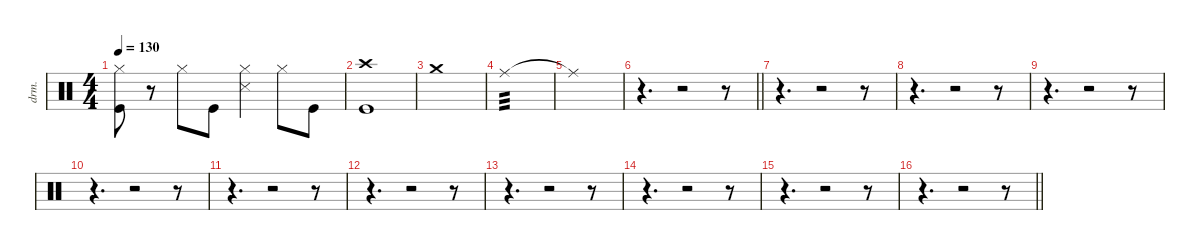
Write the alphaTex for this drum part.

\defaultSystemsLayout 4
\hideDynamics
\bracketExtendMode nobrackets
\track ("Manouche" "drm.") {instrument percussion}
\staff {score}
\articulation defaults
\ts (4 4)
\tempo 130
\clef neutral
\ks c
("Hi-Hat (closed)" "Kick (hit)").8{dy f beam Down} r.8{beam Down} "Hi-Hat (closed)".8{beam Down} "Kick (hit)".8{beam Down} ("Hi-Hat (closed)" "Snare (side stick) 3").4{beam Down} "Hi-Hat (closed)".8{beam Down} "Kick (hit)".8{beam Down} |
("Crash high (hit)" "Kick (hit)").1{beam Down} |
"Crash medium (hit)".1{dy mf beam Down} |
"Ride (middle)".1{tp 3 dy mp beam Down} |
"Ride (middle)"{t}.1{dy f beam Down} |
\barLineRight lightlight
r.4{d beam Down} r.2{beam Down} r.8{beam Down} |
r.4{d beam Down} r.2{beam Down} r.8{beam Down} |
r.4{d beam Down} r.2{beam Down} r.8{beam Down} |
r.4{d beam Down} r.2{beam Down} r.8{beam Down} |
r.4{d beam Down} r.2{beam Down} r.8{beam Down} |
r.4{d beam Down} r.2{beam Down} r.8{beam Down} |
r.4{d beam Down} r.2{beam Down} r.8{beam Down} |
r.4{d beam Down} r.2{beam Down} r.8{beam Down} |
r.4{d beam Down} r.2{beam Down} r.8{beam Down} |
r.4{d beam Down} r.2{beam Down} r.8{beam Down} |
\barLineRight lightlight
r.4{d beam Down} r.2{beam Down} r.8{beam Down}
